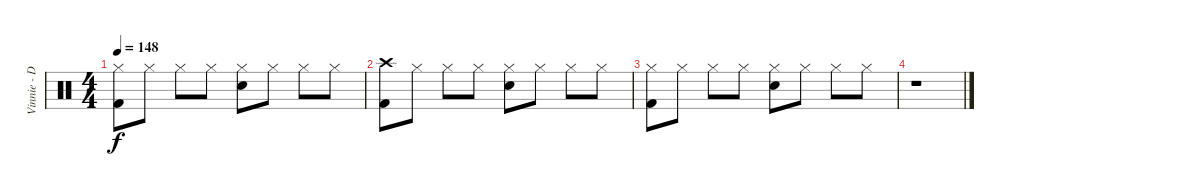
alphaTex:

\track ("Vinnie - Drums" "Vinnie - D") {instrument percussion}
\staff {score}
\articulation defaults
\ts (4 4)
\tempo 148
\clef neutral
\ks c
("Hi-Hat (closed)" "Kick (hit) 2").8{dy f} "Hi-Hat (closed)".8 "Hi-Hat (closed)".8 "Hi-Hat (closed)".8 ("Hi-Hat (closed)" "Electric Snare (hit)").8 "Hi-Hat (closed)".8 "Hi-Hat (closed)".8 "Hi-Hat (closed)".8 |
("Crash high (hit)" "Kick (hit) 2").8{volume 0} "Hi-Hat (closed)".8 "Hi-Hat (closed)".8 "Hi-Hat (closed)".8 ("Hi-Hat (closed)" "Electric Snare (hit)").8 "Hi-Hat (closed)".8 "Hi-Hat (closed)".8 "Hi-Hat (closed)".8 |
("Hi-Hat (closed)" "Kick (hit) 2").8 "Hi-Hat (closed)".8 "Hi-Hat (closed)".8 "Hi-Hat (closed)".8 ("Hi-Hat (closed)" "Electric Snare (hit)").8 "Hi-Hat (closed)".8 "Hi-Hat (closed)".8 "Hi-Hat (closed)".8 |
r.1
